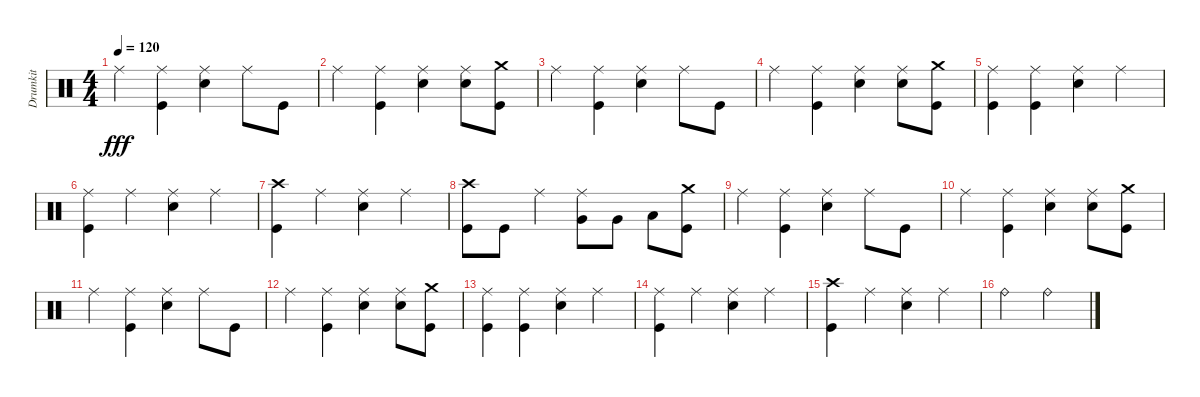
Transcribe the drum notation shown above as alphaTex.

\track ("Drumkit" "Drumkit") {instrument percussion}
\staff {score}
\articulation defaults
\ts (4 4)
\tempo 120
\clef neutral
\ks c "Ride (middle)".4{dy fff}
("Ride (middle)" "Kick (hit)").4 ("Ride (middle)" "Snare (hit) 2").4 "Ride (middle)".8 "Kick (hit)".8 |
"Ride (middle)".4 ("Ride (middle)" "Kick (hit)").4 ("Ride (middle)" "Snare (hit) 2").4 ("Ride (middle)" "Snare (hit) 2").8 ("Kick (hit)" "Crash medium (hit)").8 |
"Ride (middle)".4 ("Ride (middle)" "Kick (hit)").4 ("Ride (middle)" "Snare (hit) 2").4 "Ride (middle)".8 "Kick (hit)".8 |
"Ride (middle)".4 ("Ride (middle)" "Kick (hit)").4 ("Ride (middle)" "Snare (hit) 2").4 ("Ride (middle)" "Snare (hit) 2").8 ("Kick (hit)" "Crash medium (hit)").8 |
("Ride (middle)" "Kick (hit)").4 ("Ride (middle)" "Kick (hit)").4 ("Ride (middle)" "Snare (hit) 2").4 "Ride (middle)".4 |
("Ride (middle)" "Kick (hit)").4 "Ride (middle)".4 ("Ride (middle)" "Snare (hit) 2").4 "Ride (middle)".4 |
("Kick (hit)" "Crash high (hit)").4 "Ride (middle)".4 ("Ride (middle)" "Snare (hit) 2").4 "Ride (middle)".4 |
("Kick (hit)" "Crash high (hit)").8 "Kick (hit)".8 "Ride (middle)".4 ("Ride (middle)" "Very Low Tom (hit)").8 "Very Low Tom (hit)".8 "Low Tom (hit)".8 ("Crash medium (hit)" "Kick (hit)").8 |
"Ride (middle)".4 ("Ride (middle)" "Kick (hit)").4 ("Ride (middle)" "Snare (hit) 2").4 "Ride (middle)".8 "Kick (hit)".8 |
"Ride (middle)".4 ("Ride (middle)" "Kick (hit)").4 ("Ride (middle)" "Snare (hit) 2").4 ("Ride (middle)" "Snare (hit) 2").8 ("Kick (hit)" "Crash medium (hit)").8 |
"Ride (middle)".4 ("Ride (middle)" "Kick (hit)").4 ("Ride (middle)" "Snare (hit) 2").4 "Ride (middle)".8 "Kick (hit)".8 |
"Ride (middle)".4 ("Ride (middle)" "Kick (hit)").4 ("Ride (middle)" "Snare (hit) 2").4 ("Ride (middle)" "Snare (hit) 2").8 ("Kick (hit)" "Crash medium (hit)").8 |
("Ride (middle)" "Kick (hit)").4 ("Ride (middle)" "Kick (hit)").4 ("Ride (middle)" "Snare (hit) 2").4 "Ride (middle)".4 |
("Ride (middle)" "Kick (hit)").4 "Ride (middle)".4 ("Ride (middle)" "Snare (hit) 2").4 "Ride (middle)".4 |
("Kick (hit)" "Crash high (hit)").4 "Ride (middle)".4 ("Ride (middle)" "Snare (hit) 2").4 "Ride (middle)".4 |
"Ride (bell)".2 "Ride (bell)".2
